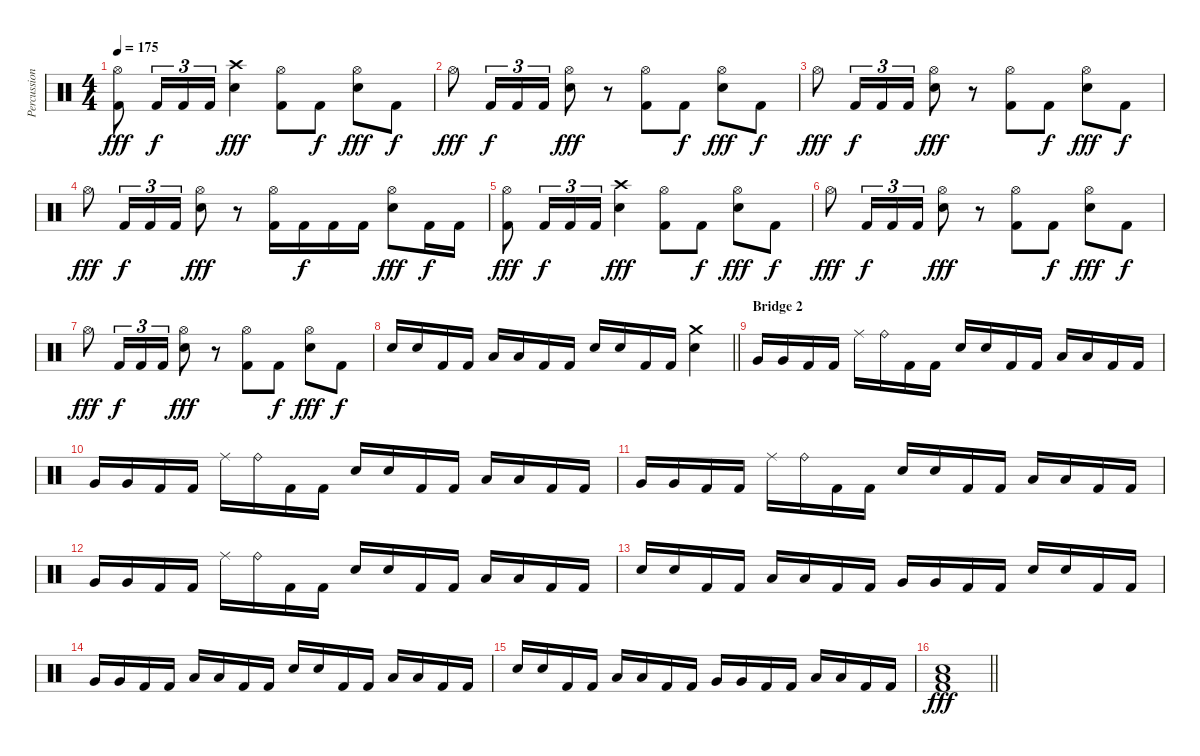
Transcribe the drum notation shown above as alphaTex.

\track ("Percussion" "Percussion") {instrument percussion}
\staff {score}
\articulation defaults
\ts (4 4)
\tempo 175
\clef neutral
\ks c
("Hi-Hat (open)" "Kick (hit) 2").8{dy fff} "Kick (hit) 2".16{tu (3 2) dy f} "Kick (hit) 2".16{tu (3 2)} "Kick (hit) 2".16{tu (3 2)} ("Crash high (hit)" "Electric Snare (hit)").4{dy fff} ("Hi-Hat (open)" "Kick (hit) 2").8 "Kick (hit) 2".8{dy f} ("Hi-Hat (open)" "Electric Snare (hit)").8{dy fff} "Kick (hit) 2".8{dy f} |
"Hi-Hat (open)".8{dy fff} "Kick (hit) 2".16{tu (3 2) dy f} "Kick (hit) 2".16{tu (3 2)} "Kick (hit) 2".16{tu (3 2)} ("Hi-Hat (open)" "Electric Snare (hit)").8{dy fff} r.8 ("Hi-Hat (open)" "Kick (hit) 2").8 "Kick (hit) 2".8{dy f} ("Hi-Hat (open)" "Electric Snare (hit)").8{dy fff} "Kick (hit) 2".8{dy f} |
"Hi-Hat (open)".8{dy fff} "Kick (hit) 2".16{tu (3 2) dy f} "Kick (hit) 2".16{tu (3 2)} "Kick (hit) 2".16{tu (3 2)} ("Hi-Hat (open)" "Electric Snare (hit)").8{dy fff} r.8 ("Hi-Hat (open)" "Kick (hit) 2").8 "Kick (hit) 2".8{dy f} ("Hi-Hat (open)" "Electric Snare (hit)").8{dy fff} "Kick (hit) 2".8{dy f} |
"Hi-Hat (open)".8{dy fff} "Kick (hit) 2".16{tu (3 2) dy f} "Kick (hit) 2".16{tu (3 2)} "Kick (hit) 2".16{tu (3 2)} ("Hi-Hat (open)" "Electric Snare (hit)").8{dy fff} r.8 ("Hi-Hat (open)" "Kick (hit) 2").16 "Kick (hit) 2".16{dy f} "Kick (hit) 2".16 "Kick (hit) 2".16 ("Hi-Hat (open)" "Electric Snare (hit)").8{dy fff} "Kick (hit) 2".16{dy f} "Kick (hit) 2".16 |
("Hi-Hat (open)" "Kick (hit) 2").8{dy fff} "Kick (hit) 2".16{tu (3 2) dy f} "Kick (hit) 2".16{tu (3 2)} "Kick (hit) 2".16{tu (3 2)} ("Crash high (hit)" "Electric Snare (hit)").4{dy fff} ("Hi-Hat (open)" "Kick (hit) 2").8 "Kick (hit) 2".8{dy f} ("Hi-Hat (open)" "Electric Snare (hit)").8{dy fff} "Kick (hit) 2".8{dy f} |
"Hi-Hat (open)".8{dy fff} "Kick (hit) 2".16{tu (3 2) dy f} "Kick (hit) 2".16{tu (3 2)} "Kick (hit) 2".16{tu (3 2)} ("Hi-Hat (open)" "Electric Snare (hit)").8{dy fff} r.8 ("Hi-Hat (open)" "Kick (hit) 2").8 "Kick (hit) 2".8{dy f} ("Hi-Hat (open)" "Electric Snare (hit)").8{dy fff} "Kick (hit) 2".8{dy f} |
"Hi-Hat (open)".8{dy fff} "Kick (hit) 2".16{tu (3 2) dy f} "Kick (hit) 2".16{tu (3 2)} "Kick (hit) 2".16{tu (3 2)} ("Hi-Hat (open)" "Electric Snare (hit)").8{dy fff} r.8 ("Hi-Hat (open)" "Kick (hit) 2").8 "Kick (hit) 2".8{dy f} ("Hi-Hat (open)" "Electric Snare (hit)").8{dy fff} "Kick (hit) 2".8{dy f} |
\barLineRight lightlight "Electric Snare (hit)".16 "Electric Snare (hit)".16 "Kick (hit) 2".16 "Kick (hit) 2".16 "Low Tom (hit)".16 "Low Tom (hit)".16 "Kick (hit) 2".16 "Kick (hit) 2".16 "Electric Snare (hit)".16 "Electric Snare (hit)".16 "Kick (hit) 2".16 "Kick (hit) 2".16
("Crash medium (hit)" "Electric Snare (hit)").4 |
\section ("" "Bridge 2")
"Very Low Tom (hit)".16 "Very Low Tom (hit)".16 "Kick (hit) 2".16 "Kick (hit) 2".16 "Ride (middle)".16 "Ride (bell)".16 "Kick (hit) 2".16 "Kick (hit) 2".16 "Electric Snare (hit)".16 "Electric Snare (hit)".16 "Kick (hit) 2".16 "Kick (hit) 2".16 "Low Tom (hit)".16 "Low Tom (hit)".16 "Kick (hit) 2".16 "Kick (hit) 2".16 |
"Very Low Tom (hit)".16 "Very Low Tom (hit)".16 "Kick (hit) 2".16 "Kick (hit) 2".16 "Ride (middle)".16 "Ride (bell)".16 "Kick (hit) 2".16 "Kick (hit) 2".16 "Electric Snare (hit)".16 "Electric Snare (hit)".16 "Kick (hit) 2".16 "Kick (hit) 2".16 "Low Tom (hit)".16 "Low Tom (hit)".16 "Kick (hit) 2".16 "Kick (hit) 2".16 |
"Very Low Tom (hit)".16 "Very Low Tom (hit)".16 "Kick (hit) 2".16 "Kick (hit) 2".16 "Ride (middle)".16 "Ride (bell)".16 "Kick (hit) 2".16 "Kick (hit) 2".16 "Electric Snare (hit)".16 "Electric Snare (hit)".16 "Kick (hit) 2".16 "Kick (hit) 2".16 "Low Tom (hit)".16 "Low Tom (hit)".16 "Kick (hit) 2".16 "Kick (hit) 2".16 |
"Very Low Tom (hit)".16 "Very Low Tom (hit)".16 "Kick (hit) 2".16 "Kick (hit) 2".16 "Ride (middle)".16 "Ride (bell)".16 "Kick (hit) 2".16 "Kick (hit) 2".16 "Electric Snare (hit)".16 "Electric Snare (hit)".16 "Kick (hit) 2".16 "Kick (hit) 2".16 "Low Tom (hit)".16 "Low Tom (hit)".16 "Kick (hit) 2".16 "Kick (hit) 2".16 |
"Electric Snare (hit)".16 "Electric Snare (hit)".16 "Kick (hit) 2".16 "Kick (hit) 2".16 "Low Tom (hit)".16 "Low Tom (hit)".16 "Kick (hit) 2".16 "Kick (hit) 2".16 "Very Low Tom (hit)".16 "Very Low Tom (hit)".16 "Kick (hit) 2".16 "Kick (hit) 2".16 "Electric Snare (hit)".16 "Electric Snare (hit)".16 "Kick (hit) 2".16 "Kick (hit) 2".16 |
"Very Low Tom (hit)".16 "Very Low Tom (hit)".16 "Kick (hit) 2".16 "Kick (hit) 2".16 "Low Floor Tom (hit)".16 "Low Floor Tom (hit)".16 "Kick (hit) 2".16 "Kick (hit) 2".16 "Electric Snare (hit)".16 "Electric Snare (hit)".16 "Kick (hit) 2".16 "Kick (hit) 2".16 "Low Floor Tom (hit)".16 "Low Floor Tom (hit)".16 "Kick (hit) 2".16 "Kick (hit) 2".16 |
"Electric Snare (hit)".16 "Electric Snare (hit)".16 "Kick (hit) 2".16 "Kick (hit) 2".16 "Low Tom (hit)".16 "Low Tom (hit)".16 "Kick (hit) 2".16 "Kick (hit) 2".16 "Very Low Tom (hit)".16 "Very Low Tom (hit)".16 "Kick (hit) 2".16 "Kick (hit) 2".16 "Low Floor Tom (hit)".16 "Low Floor Tom (hit)".16 "Kick (hit) 2".16 "Kick (hit) 2".16 |
\barLineRight lightlight
("Low Floor Tom (hit)" "Electric Snare (hit)" "Kick (hit) 2").1{dy fff}
